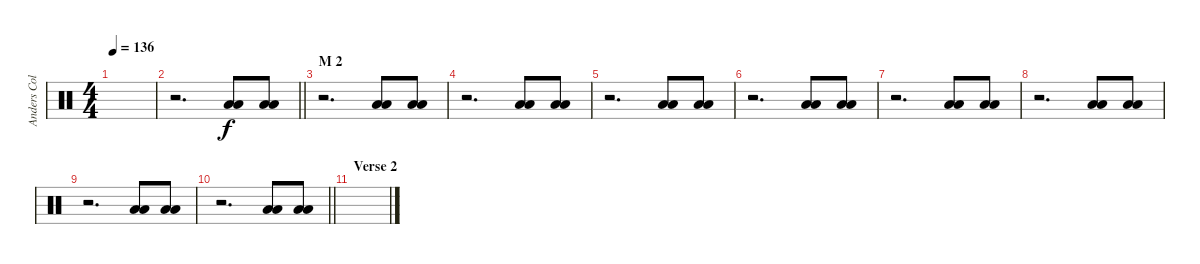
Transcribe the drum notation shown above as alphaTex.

\track ("Anders Colsefni" "Anders Col") {instrument percussion}
\staff {score}
\articulation defaults
\ts (4 4)
\tempo 136
\clef neutral
\ks c
|
\barLineRight lightlight
r.2{d} ("Low Floor Tom (hit)" "Low Floor Tom (hit)").8 ("Low Floor Tom (hit)" "Low Floor Tom (hit)").8 |
\section ("" "M 2")
r.2{d} ("Low Floor Tom (hit)" "Low Floor Tom (hit)").8 ("Low Floor Tom (hit)" "Low Floor Tom (hit)").8 |
r.2{d} ("Low Floor Tom (hit)" "Low Floor Tom (hit)").8 ("Low Floor Tom (hit)" "Low Floor Tom (hit)").8 |
r.2{d} ("Low Floor Tom (hit)" "Low Floor Tom (hit)").8 ("Low Floor Tom (hit)" "Low Floor Tom (hit)").8 |
r.2{d} ("Low Floor Tom (hit)" "Low Floor Tom (hit)").8 ("Low Floor Tom (hit)" "Low Floor Tom (hit)").8 |
r.2{d} ("Low Floor Tom (hit)" "Low Floor Tom (hit)").8 ("Low Floor Tom (hit)" "Low Floor Tom (hit)").8 |
r.2{d} ("Low Floor Tom (hit)" "Low Floor Tom (hit)").8 ("Low Floor Tom (hit)" "Low Floor Tom (hit)").8 |
r.2{d} ("Low Floor Tom (hit)" "Low Floor Tom (hit)").8 ("Low Floor Tom (hit)" "Low Floor Tom (hit)").8 |
\barLineRight lightlight
r.2{d} ("Low Floor Tom (hit)" "Low Floor Tom (hit)").8 ("Low Floor Tom (hit)" "Low Floor Tom (hit)").8 |
\section ("" "Verse 2")
